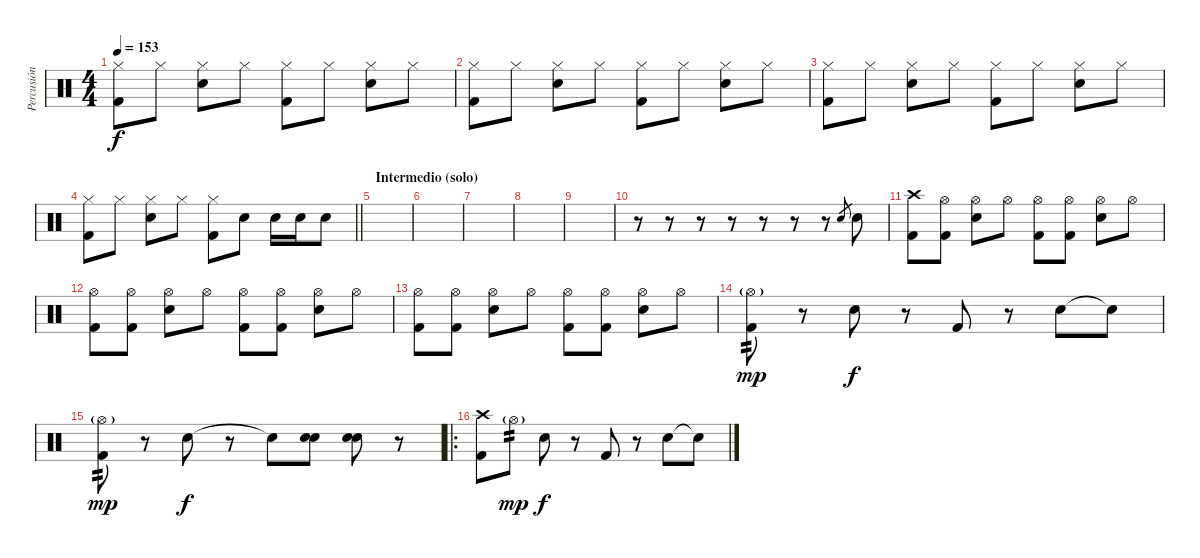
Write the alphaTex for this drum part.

\track ("Percusión" "Percusión") {instrument percussion}
\staff {score}
\articulation defaults
\ts (4 4)
\tempo 153
\clef neutral
\ks c
("Hi-Hat (closed)" "Kick (hit) 2").8{dy f} "Hi-Hat (closed)".8 ("Hi-Hat (closed)" "Snare (hit) 2").8 "Hi-Hat (closed)".8 ("Hi-Hat (closed)" "Kick (hit) 2").8 "Hi-Hat (closed)".8 ("Hi-Hat (closed)" "Snare (hit) 2").8 "Hi-Hat (closed)".8 |
("Hi-Hat (closed)" "Kick (hit) 2").8 "Hi-Hat (closed)".8 ("Hi-Hat (closed)" "Snare (hit) 2").8 "Hi-Hat (closed)".8 ("Hi-Hat (closed)" "Kick (hit) 2").8 "Hi-Hat (closed)".8 ("Hi-Hat (closed)" "Snare (hit) 2").8 "Hi-Hat (closed)".8 |
("Hi-Hat (closed)" "Kick (hit) 2").8 "Hi-Hat (closed)".8 ("Hi-Hat (closed)" "Snare (hit) 2").8 "Hi-Hat (closed)".8 ("Hi-Hat (closed)" "Kick (hit) 2").8 "Hi-Hat (closed)".8 ("Hi-Hat (closed)" "Snare (hit) 2").8 "Hi-Hat (closed)".8 |
\barLineRight lightlight
("Hi-Hat (closed)" "Kick (hit) 2").8 "Hi-Hat (closed)".8 ("Hi-Hat (closed)" "Snare (hit) 2").8 "Hi-Hat (closed)".8 ("Hi-Hat (closed)" "Kick (hit) 2").8 "Snare (hit) 2".8 "Snare (hit) 2".16 "Snare (hit) 2".16 "Snare (hit) 2".8 |
\section ("" "Intermedio (solo)")
|
|
|
|
|
r.8 r.8 r.8 r.8 r.8 r.8 r.8 "Snare (hit) 2".8{gr} "Snare (hit) 2".8 |
("Crash high (hit)" "Kick (hit) 2").8 ("Hi-Hat (open)" "Kick (hit) 2").8 ("Hi-Hat (open)" "Snare (hit) 2").8 "Hi-Hat (open)".8 ("Hi-Hat (open)" "Kick (hit) 2").8 ("Hi-Hat (open)" "Kick (hit) 2").8 ("Hi-Hat (open)" "Snare (hit) 2").8 "Hi-Hat (open)".8 |
("Hi-Hat (open)" "Kick (hit) 2").8 ("Hi-Hat (open)" "Kick (hit) 2").8 ("Hi-Hat (open)" "Snare (hit) 2").8 "Hi-Hat (open)".8 ("Hi-Hat (open)" "Kick (hit) 2").8 ("Hi-Hat (open)" "Kick (hit) 2").8 ("Hi-Hat (open)" "Snare (hit) 2").8 "Hi-Hat (open)".8 |
("Hi-Hat (open)" "Kick (hit) 2").8 ("Hi-Hat (open)" "Kick (hit) 2").8 ("Hi-Hat (open)" "Snare (hit) 2").8 "Hi-Hat (open)".8 ("Hi-Hat (open)" "Kick (hit) 2").8 ("Hi-Hat (open)" "Kick (hit) 2").8 ("Hi-Hat (open)" "Snare (hit) 2").8 "Hi-Hat (open)".8 |
("Hi-Hat (open)"{g} "Kick (hit) 2").8{tp 2 dy mp} r.8 "Snare (hit) 2".8{dy f} r.8 "Kick (hit) 2".8 r.8 "Snare (hit) 2".8 "Snare (hit)"{t}.8 |
("Hi-Hat (open)"{g} "Kick (hit) 2").8{tp 2 dy mp} r.8 "Snare (hit) 2".8{dy f} r.8 "Snare (hit)"{t}.8 ("Snare (hit) 2" "Snare (hit) 2").8 ("Snare (hit) 2" "Snare (hit) 2").8 r.8 |
\ro
("Crash high (hit)" "Kick (hit) 2").8 "Hi-Hat (open)"{g}.8{tp 2 dy mp} "Snare (hit) 2".8{dy f} r.8 "Kick (hit) 2".8 r.8 "Snare (hit) 2".8 "Snare (hit)"{t}.8
